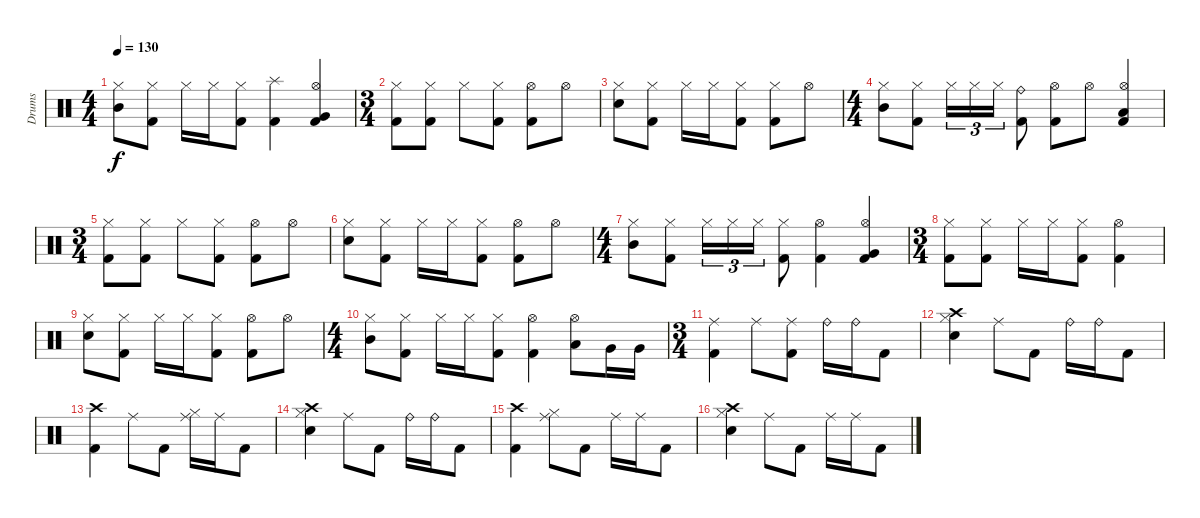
\track ("Drums" "Drums") {instrument percussion}
\staff {score}
\articulation defaults
\ts (4 4)
\tempo 130
\clef neutral
\ks c
("Hi-Hat (closed)" "Mid Tom (hit)").8{dy f} ("Hi-Hat (closed)" "Kick (hit) 2").8 "Hi-Hat (closed)".16 "Hi-Hat (closed)".16 ("Hi-Hat (closed)" "Kick (hit) 2").8 ("Splash (hit)" "Kick (hit) 2").4 ("Hi-Hat (open)" "Very Low Tom (hit)" "Kick (hit) 2").4 |
\ts (3 4)
("Hi-Hat (closed)" "Kick (hit) 2").8 ("Hi-Hat (closed)" "Kick (hit) 2").8 "Hi-Hat (closed)".8 ("Hi-Hat (closed)" "Kick (hit) 2").8 ("Hi-Hat (open)" "Kick (hit) 2").8 "Hi-Hat (open)".8 |
("Hi-Hat (closed)" "Snare (hit) 2").8 ("Hi-Hat (closed)" "Kick (hit) 2").8 "Hi-Hat (closed)".16 "Hi-Hat (closed)".16 ("Hi-Hat (closed)" "Kick (hit) 2").8 ("Hi-Hat (closed)" "Kick (hit) 2").8 "Hi-Hat (open)".8 |
\ts (4 4)
("Hi-Hat (closed)" "Mid Tom (hit)").8 ("Hi-Hat (closed)" "Kick (hit) 2").8 "Hi-Hat (closed)".16{tu (3 2)} "Hi-Hat (closed)".16{tu (3 2)} "Hi-Hat (closed)".16{tu (3 2)} ("Ride (bell)" "Kick (hit) 2").8 ("Hi-Hat (open)" "Kick (hit) 2").8 "Hi-Hat (open)".8 ("Hi-Hat (open)" "Low Floor Tom (hit)" "Kick (hit) 2").4 |
\ts (3 4)
("Hi-Hat (closed)" "Kick (hit) 2").8 ("Hi-Hat (closed)" "Kick (hit) 2").8 "Hi-Hat (closed)".8 ("Hi-Hat (closed)" "Kick (hit) 2").8 ("Hi-Hat (open)" "Kick (hit) 2").8 "Hi-Hat (open)".8 |
("Hi-Hat (closed)" "Snare (hit) 2").8 ("Hi-Hat (closed)" "Kick (hit) 2").8 "Hi-Hat (closed)".16 "Hi-Hat (closed)".16 ("Hi-Hat (closed)" "Kick (hit) 2").8 ("Hi-Hat (open)" "Kick (hit) 2").8 "Hi-Hat (open)".8 |
\ts (4 4)
("Hi-Hat (closed)" "Mid Tom (hit)").8 ("Hi-Hat (closed)" "Kick (hit) 2").8 "Hi-Hat (closed)".16{tu (3 2)} "Hi-Hat (closed)".16{tu (3 2)} "Hi-Hat (closed)".16{tu (3 2)} ("Hi-Hat (closed)" "Kick (hit) 2").8 ("Hi-Hat (open)" "Kick (hit) 2").4 ("Hi-Hat (open)" "Very Low Tom (hit)" "Kick (hit) 2").4 |
\ts (3 4)
("Hi-Hat (closed)" "Kick (hit) 2").8 ("Hi-Hat (closed)" "Kick (hit) 2").8 "Hi-Hat (closed)".16 "Hi-Hat (closed)".16 ("Hi-Hat (closed)" "Kick (hit) 2").8 ("Hi-Hat (open)" "Kick (hit) 2").4 |
("Hi-Hat (closed)" "Snare (hit) 2").8 ("Hi-Hat (closed)" "Kick (hit) 2").8 "Hi-Hat (closed)".16 "Hi-Hat (closed)".16 ("Hi-Hat (closed)" "Kick (hit) 2").8 ("Hi-Hat (open)" "Kick (hit) 2").8 "Hi-Hat (open)".8 |
\ts (4 4)
("Hi-Hat (closed)" "Mid Tom (hit)").8 ("Hi-Hat (closed)" "Kick (hit) 2").8 "Hi-Hat (closed)".16 "Hi-Hat (closed)".16 ("Hi-Hat (closed)" "Kick (hit) 2").8 ("Hi-Hat (open)" "Kick (hit) 2").4 ("Hi-Hat (open)" "Low Floor Tom (hit)").8 "Very Low Tom (hit)".16 "Very Low Tom (hit)".16 |
\ts (3 4)
("Ride (middle)" "Kick (hit) 2").4 "Ride (middle)".8 ("Ride (middle)" "Kick (hit) 2").8 "Ride (bell)".16 "Ride (bell)".16 "Kick (hit) 2".8 |
("Crash high (hit)" "Snare (hit) 2" "Hi-Hat (closed)").4 "Ride (middle)".8 "Kick (hit) 2".8 "Ride (bell)".16 "Ride (bell)".16 "Kick (hit) 2".8 |
("Crash high (hit)" "Kick (hit) 2").4 "Ride (middle)".8 "Kick (hit) 2".8 ("Ride (middle)" "Hi-Hat (closed)").16 "Ride (middle)".16 "Kick (hit) 2".8 |
("Crash high (hit)" "Snare (hit) 2" "Hi-Hat (closed)").4 "Ride (middle)".8 "Kick (hit) 2".8 "Ride (bell)".16 "Ride (bell)".16 "Kick (hit) 2".8 |
("Crash high (hit)" "Kick (hit) 2").4 ("Ride (middle)" "Hi-Hat (closed)").8 "Kick (hit) 2".8 "Ride (middle)".16 "Ride (middle)".16 "Kick (hit) 2".8 |
("Crash high (hit)" "Snare (hit) 2" "Hi-Hat (closed)").4 "Ride (middle)".8 "Kick (hit) 2".8 "Ride (middle)".16 "Ride (middle)".16 "Kick (hit) 2".8
